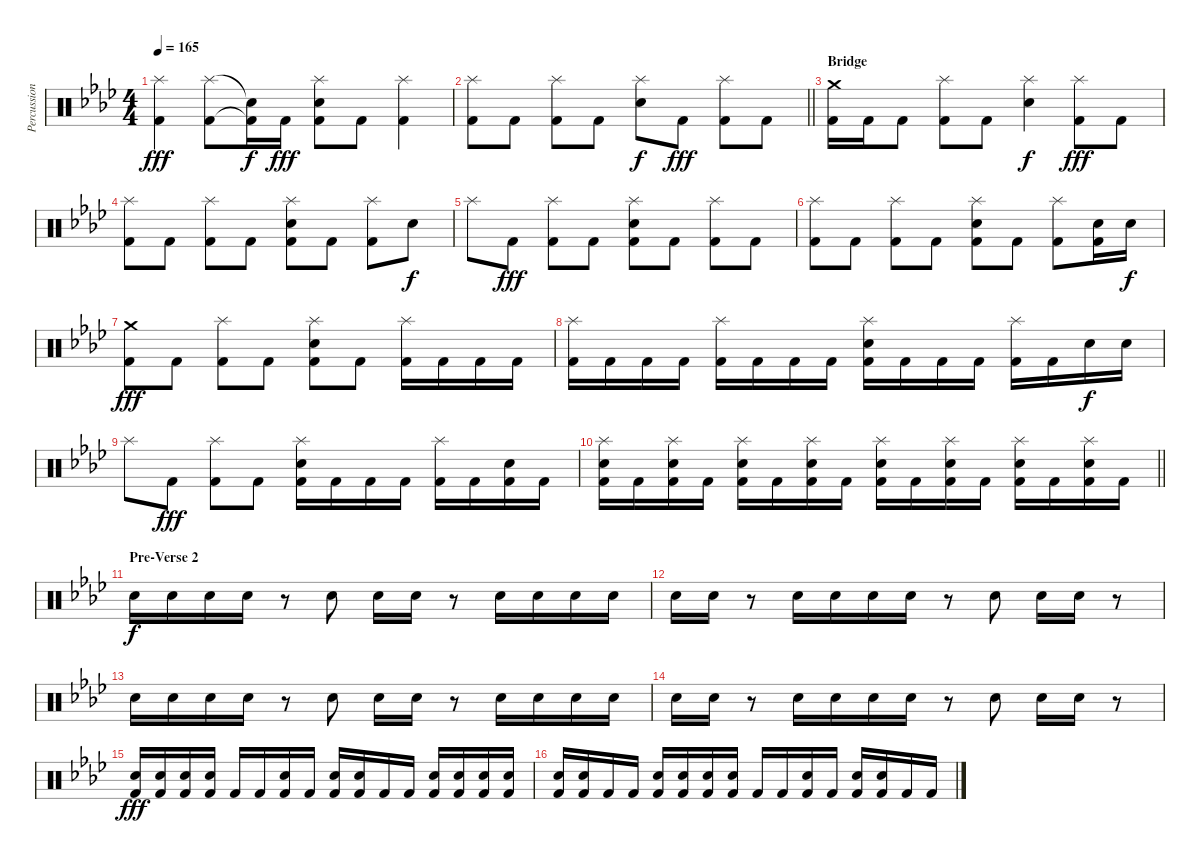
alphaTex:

\track ("Percussion" "Percussion") {instrument percussion}
\staff {score}
\articulation defaults
\ts (4 4)
\tempo 165
\clef neutral
\ks ab
("Splash (hit)" "Kick (hit) 2").4{dy fff} ("Splash (hit)" "Kick (hit) 2").8 ("Snare (hit)"{t} "Kick (hit) 2"{t}).16{dy f} "Kick (hit) 2".16{dy fff} ("Splash (hit)" "Electric Snare (hit)" "Kick (hit) 2").8 "Kick (hit) 2".8 ("Splash (hit)" "Kick (hit) 2").4 |
\barLineRight lightlight
("Splash (hit)" "Kick (hit) 2").8 "Kick (hit) 2".8 ("Splash (hit)" "Kick (hit) 2").8 "Kick (hit) 2".8 ("Splash (hit)" "Electric Snare (hit)").8{dy f} "Kick (hit) 2".8{dy fff} ("Splash (hit)" "Kick (hit) 2").8 "Kick (hit) 2".8 |
\section ("" "Bridge")
("Crash medium (hit)" "Kick (hit) 2").16 "Kick (hit) 2".16 "Kick (hit) 2".8 ("Splash (hit)" "Kick (hit) 2").8 "Kick (hit) 2".8 ("Splash (hit)" "Electric Snare (hit)").4{dy f} ("Splash (hit)" "Kick (hit) 2").8{dy fff} "Kick (hit) 2".8 |
("Splash (hit)" "Kick (hit) 2").8 "Kick (hit) 2".8 ("Splash (hit)" "Kick (hit) 2").8 "Kick (hit) 2".8 ("Splash (hit)" "Electric Snare (hit)" "Kick (hit) 2").8 "Kick (hit) 2".8 ("Splash (hit)" "Kick (hit) 2").8 "Electric Snare (hit)".8{dy f} |
"Splash (hit)".8 "Kick (hit) 2".8{dy fff} ("Splash (hit)" "Kick (hit) 2").8 "Kick (hit) 2".8 ("Splash (hit)" "Electric Snare (hit)" "Kick (hit) 2").8 "Kick (hit) 2".8 ("Splash (hit)" "Kick (hit) 2").8 "Kick (hit) 2".8 |
("Splash (hit)" "Kick (hit) 2").8 "Kick (hit) 2".8 ("Splash (hit)" "Kick (hit) 2").8 "Kick (hit) 2".8 ("Splash (hit)" "Electric Snare (hit)" "Kick (hit) 2").8 "Kick (hit) 2".8 ("Splash (hit)" "Kick (hit) 2").8 ("Electric Snare (hit)" "Kick (hit) 2").16 "Electric Snare (hit)".16{dy f} |
("Crash medium (hit)" "Kick (hit) 2").8{dy fff} "Kick (hit) 2".8 ("Splash (hit)" "Kick (hit) 2").8 "Kick (hit) 2".8 ("Splash (hit)" "Electric Snare (hit)" "Kick (hit) 2").8 "Kick (hit) 2".8 ("Splash (hit)" "Kick (hit) 2").16 "Kick (hit) 2".16 "Kick (hit) 2".16 "Kick (hit) 2".16 |
("Splash (hit)" "Kick (hit) 2").16 "Kick (hit) 2".16 "Kick (hit) 2".16 "Kick (hit) 2".16 ("Splash (hit)" "Kick (hit) 2").16 "Kick (hit) 2".16 "Kick (hit) 2".16 "Kick (hit) 2".16 ("Splash (hit)" "Electric Snare (hit)" "Kick (hit) 2").16 "Kick (hit) 2".16 "Kick (hit) 2".16 "Kick (hit) 2".16 ("Splash (hit)" "Kick (hit) 2").16 "Kick (hit) 2".16 "Electric Snare (hit)".16{dy f} "Electric Snare (hit)".16 |
"Splash (hit)".8 "Kick (hit) 2".8{dy fff} ("Splash (hit)" "Kick (hit) 2").8 "Kick (hit) 2".8 ("Splash (hit)" "Electric Snare (hit)" "Kick (hit) 2").16 "Kick (hit) 2".16 "Kick (hit) 2".16 "Kick (hit) 2".16 ("Splash (hit)" "Kick (hit) 2").16 "Kick (hit) 2".16 ("Electric Snare (hit)" "Kick (hit) 2").16 "Kick (hit) 2".16 |
\barLineRight lightlight
("Splash (hit)" "Electric Snare (hit)" "Kick (hit) 2").16 "Kick (hit) 2".16 ("Splash (hit)" "Electric Snare (hit)" "Kick (hit) 2").16 "Kick (hit) 2".16 ("Splash (hit)" "Electric Snare (hit)" "Kick (hit) 2").16 "Kick (hit) 2".16 ("Splash (hit)" "Electric Snare (hit)" "Kick (hit) 2").16 "Kick (hit) 2".16 ("Splash (hit)" "Electric Snare (hit)" "Kick (hit) 2").16 "Kick (hit) 2".16 ("Splash (hit)" "Electric Snare (hit)" "Kick (hit) 2").16 "Kick (hit) 2".16 ("Splash (hit)" "Electric Snare (hit)" "Kick (hit) 2").16 "Kick (hit) 2".16 ("Splash (hit)" "Electric Snare (hit)" "Kick (hit) 2").16 "Kick (hit) 2".16 |
\section ("" "Pre-Verse 2")
"Electric Snare (hit)".16{dy f} "Electric Snare (hit)".16 "Electric Snare (hit)".16 "Electric Snare (hit)".16 r.8 "Electric Snare (hit)".8 "Electric Snare (hit)".16 "Electric Snare (hit)".16 r.8 "Electric Snare (hit)".16 "Electric Snare (hit)".16 "Electric Snare (hit)".16 "Electric Snare (hit)".16 |
"Electric Snare (hit)".16 "Electric Snare (hit)".16 r.8 "Electric Snare (hit)".16 "Electric Snare (hit)".16 "Electric Snare (hit)".16 "Electric Snare (hit)".16 r.8 "Electric Snare (hit)".8 "Electric Snare (hit)".16 "Electric Snare (hit)".16 r.8 |
"Electric Snare (hit)".16 "Electric Snare (hit)".16 "Electric Snare (hit)".16 "Electric Snare (hit)".16 r.8 "Electric Snare (hit)".8 "Electric Snare (hit)".16 "Electric Snare (hit)".16 r.8 "Electric Snare (hit)".16 "Electric Snare (hit)".16 "Electric Snare (hit)".16 "Electric Snare (hit)".16 |
"Electric Snare (hit)".16 "Electric Snare (hit)".16 r.8 "Electric Snare (hit)".16 "Electric Snare (hit)".16 "Electric Snare (hit)".16 "Electric Snare (hit)".16 r.8 "Electric Snare (hit)".8 "Electric Snare (hit)".16 "Electric Snare (hit)".16 r.8 |
("Electric Snare (hit)" "Kick (hit) 2").16{dy fff} ("Electric Snare (hit)" "Kick (hit) 2").16 ("Electric Snare (hit)" "Kick (hit) 2").16 ("Electric Snare (hit)" "Kick (hit) 2").16 "Kick (hit) 2".16 "Kick (hit) 2".16 ("Electric Snare (hit)" "Kick (hit) 2").16 "Kick (hit) 2".16 ("Electric Snare (hit)" "Kick (hit) 2").16 ("Electric Snare (hit)" "Kick (hit) 2").16 "Kick (hit) 2".16 "Kick (hit) 2".16 ("Electric Snare (hit)" "Kick (hit) 2").16 ("Electric Snare (hit)" "Kick (hit) 2").16 ("Electric Snare (hit)" "Kick (hit) 2").16 ("Electric Snare (hit)" "Kick (hit) 2").16 |
("Electric Snare (hit)" "Kick (hit) 2").16 ("Electric Snare (hit)" "Kick (hit) 2").16 "Kick (hit) 2".16 "Kick (hit) 2".16 ("Electric Snare (hit)" "Kick (hit) 2").16 ("Electric Snare (hit)" "Kick (hit) 2").16 ("Electric Snare (hit)" "Kick (hit) 2").16 ("Electric Snare (hit)" "Kick (hit) 2").16 "Kick (hit) 2".16 "Kick (hit) 2".16 ("Electric Snare (hit)" "Kick (hit) 2").16 "Kick (hit) 2".16 ("Electric Snare (hit)" "Kick (hit) 2").16 ("Electric Snare (hit)" "Kick (hit) 2").16 "Kick (hit) 2".16 "Kick (hit) 2".16
